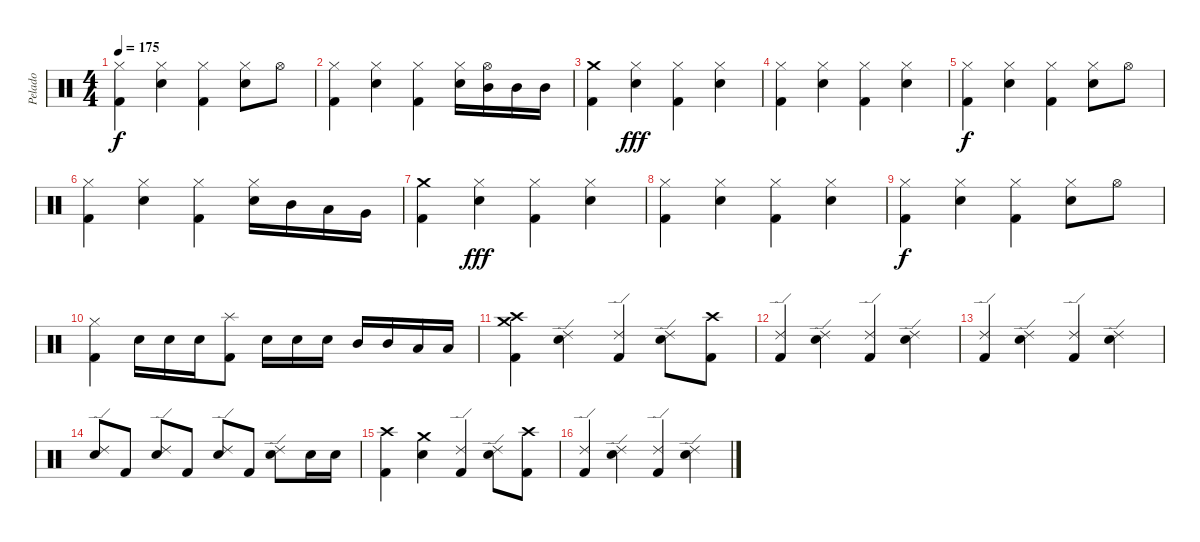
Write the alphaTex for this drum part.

\track ("Pelado" "Pelado") {instrument percussion}
\staff {score}
\articulation defaults
\ts (4 4)
\tempo 175
\clef neutral
\ks c
("Hi-Hat (closed)" "Kick (hit) 2").4{dy f} ("Hi-Hat (closed)" "Electric Snare (hit)").4 ("Hi-Hat (closed)" "Kick (hit) 2").4 ("Hi-Hat (closed)" "Electric Snare (hit)").8 "Hi-Hat (open)".8 |
("Hi-Hat (closed)" "Kick (hit) 2").4 ("Hi-Hat (closed)" "Electric Snare (hit)").4 ("Hi-Hat (closed)" "Kick (hit) 2").4 ("Hi-Hat (closed)" "Electric Snare (hit)").16 ("Hi-Hat (open)" "Mid Tom (hit)").16 "Mid Tom (hit)".16 "Mid Tom (hit)".16 |
("Crash medium (hit)" "Kick (hit) 2").4 ("Hi-Hat (closed)" "Electric Snare (hit)").4{dy fff} ("Hi-Hat (closed)" "Kick (hit) 2").4 ("Hi-Hat (closed)" "Electric Snare (hit)").4 |
("Hi-Hat (closed)" "Kick (hit) 2").4 ("Hi-Hat (closed)" "Electric Snare (hit)").4 ("Hi-Hat (closed)" "Kick (hit) 2").4 ("Hi-Hat (closed)" "Electric Snare (hit)").4 |
("Hi-Hat (closed)" "Kick (hit) 2").4{dy f} ("Hi-Hat (closed)" "Electric Snare (hit)").4 ("Hi-Hat (closed)" "Kick (hit) 2").4 ("Hi-Hat (closed)" "Electric Snare (hit)").8 "Hi-Hat (open)".8 |
("Hi-Hat (closed)" "Kick (hit) 2").4 ("Hi-Hat (closed)" "Electric Snare (hit)").4 ("Hi-Hat (closed)" "Kick (hit) 2").4 ("Hi-Hat (closed)" "Electric Snare (hit)").16 "Mid Tom (hit)".16 "Low Tom (hit)".16 "Very Low Tom (hit)".16 |
("Crash medium (hit)" "Kick (hit) 2").4 ("Hi-Hat (closed)" "Electric Snare (hit)").4{dy fff} ("Hi-Hat (closed)" "Kick (hit) 2").4 ("Hi-Hat (closed)" "Electric Snare (hit)").4 |
("Hi-Hat (closed)" "Kick (hit) 2").4 ("Hi-Hat (closed)" "Electric Snare (hit)").4 ("Hi-Hat (closed)" "Kick (hit) 2").4 ("Hi-Hat (closed)" "Electric Snare (hit)").4 |
("Hi-Hat (closed)" "Kick (hit) 2").4{dy f} ("Hi-Hat (closed)" "Electric Snare (hit)").4 ("Hi-Hat (closed)" "Kick (hit) 2").4 ("Hi-Hat (closed)" "Electric Snare (hit)").8 "Hi-Hat (open)".8 |
("Hi-Hat (closed)" "Kick (hit) 2").4 "Electric Snare (hit)".16 "Electric Snare (hit)".16 "Electric Snare (hit)".16 ("Splash (hit)" "Kick (hit) 2").8 "Electric Snare (hit)".16 "Electric Snare (hit)".16 "Electric Snare (hit)".16 "Mid Tom (hit)".16 "Mid Tom (hit)".16 "Low Tom (hit)".16 "Low Tom (hit)".16 |
("Crash medium (hit)" "Crash high (hit)" "Kick (hit) 2").4 ("Ride (edge) 2" "Electric Snare (hit)").4 ("Ride (edge) 2" "Kick (hit) 2").4 ("Ride (edge) 2" "Electric Snare (hit)").8 ("Crash high (hit)" "Kick (hit) 2").8 |
("Ride (edge) 2" "Kick (hit) 2").4 ("Ride (edge) 2" "Electric Snare (hit)").4 ("Ride (edge) 2" "Kick (hit) 2").4 ("Ride (edge) 2" "Electric Snare (hit)").4 |
("Ride (edge) 2" "Kick (hit) 2").4 ("Ride (edge) 2" "Electric Snare (hit)").4 ("Ride (edge) 2" "Kick (hit) 2").4 ("Ride (edge) 2" "Electric Snare (hit)").4 |
("Ride (edge) 2" "Electric Snare (hit)").8 "Kick (hit) 2".8 ("Ride (edge) 2" "Electric Snare (hit)").8 "Kick (hit) 2".8 ("Ride (edge) 2" "Electric Snare (hit)").8 "Kick (hit) 2".8 ("Ride (edge) 2" "Electric Snare (hit)").8 "Electric Snare (hit)".16 "Electric Snare (hit)".16 |
("Crash high (hit)" "Kick (hit) 2").4 ("Crash medium (hit)" "Electric Snare (hit)").4 ("Ride (edge) 2" "Kick (hit) 2").4 ("Ride (edge) 2" "Electric Snare (hit)").8 ("Crash high (hit)" "Kick (hit) 2").8 |
("Ride (edge) 2" "Kick (hit) 2").4 ("Ride (edge) 2" "Electric Snare (hit)").4 ("Ride (edge) 2" "Kick (hit) 2").4 ("Ride (edge) 2" "Electric Snare (hit)").4
